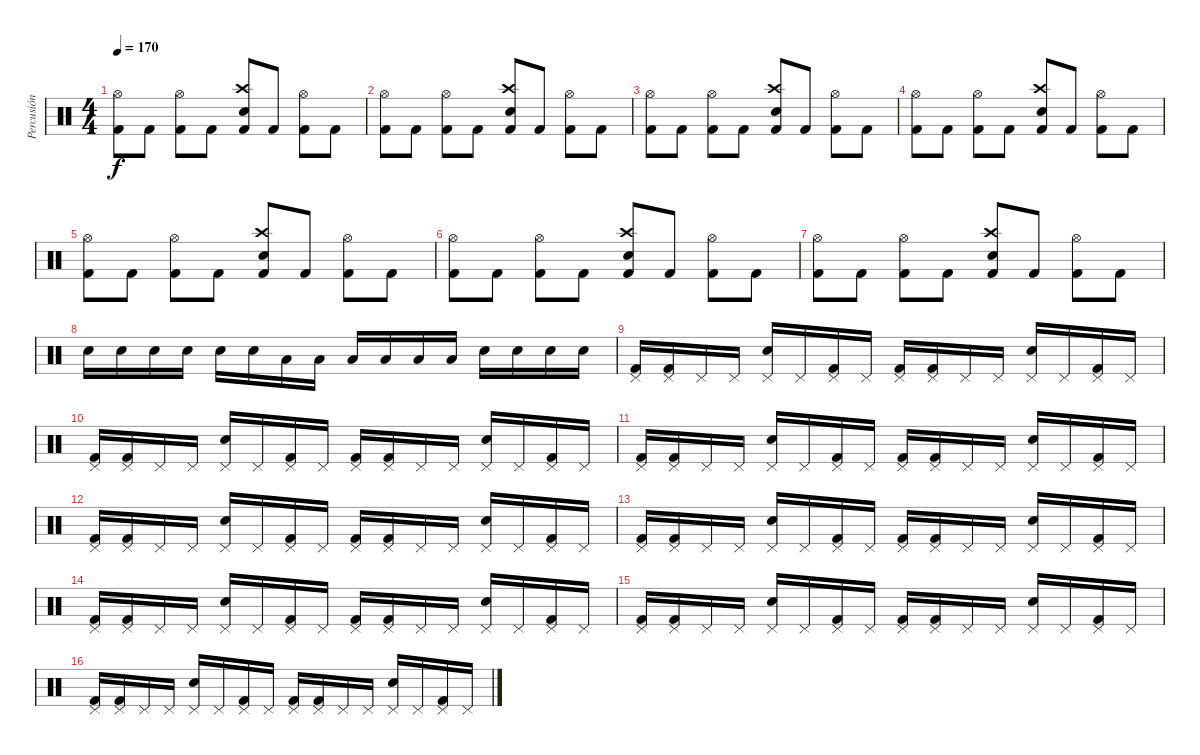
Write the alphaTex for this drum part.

\track ("Percusión" "Percusión") {instrument percussion}
\staff {score}
\articulation defaults
\ts (4 4)
\tempo 170
\clef neutral
\ks c
("Hi-Hat (open)" "Kick (hit) 2").8{dy f} "Kick (hit) 2".8 ("Hi-Hat (open)" "Kick (hit) 2").8 "Kick (hit) 2".8 ("Crash high (hit)" "Electric Snare (hit)" "Kick (hit) 2").8 "Kick (hit) 2".8 ("Hi-Hat (open)" "Kick (hit) 2").8 "Kick (hit) 2".8 |
("Hi-Hat (open)" "Kick (hit) 2").8 "Kick (hit) 2".8 ("Hi-Hat (open)" "Kick (hit) 2").8 "Kick (hit) 2".8 ("Crash high (hit)" "Electric Snare (hit)" "Kick (hit) 2").8 "Kick (hit) 2".8 ("Hi-Hat (open)" "Kick (hit) 2").8 "Kick (hit) 2".8 |
("Hi-Hat (open)" "Kick (hit) 2").8 "Kick (hit) 2".8 ("Hi-Hat (open)" "Kick (hit) 2").8 "Kick (hit) 2".8 ("Crash high (hit)" "Electric Snare (hit)" "Kick (hit) 2").8 "Kick (hit) 2".8 ("Hi-Hat (open)" "Kick (hit) 2").8 "Kick (hit) 2".8 |
("Hi-Hat (open)" "Kick (hit) 2").8 "Kick (hit) 2".8 ("Hi-Hat (open)" "Kick (hit) 2").8 "Kick (hit) 2".8 ("Crash high (hit)" "Electric Snare (hit)" "Kick (hit) 2").8 "Kick (hit) 2".8 ("Hi-Hat (open)" "Kick (hit) 2").8 "Kick (hit) 2".8 |
("Hi-Hat (open)" "Kick (hit) 2").8 "Kick (hit) 2".8 ("Hi-Hat (open)" "Kick (hit) 2").8 "Kick (hit) 2".8 ("Crash high (hit)" "Electric Snare (hit)" "Kick (hit) 2").8 "Kick (hit) 2".8 ("Hi-Hat (open)" "Kick (hit) 2").8 "Kick (hit) 2".8 |
("Hi-Hat (open)" "Kick (hit) 2").8 "Kick (hit) 2".8 ("Hi-Hat (open)" "Kick (hit) 2").8 "Kick (hit) 2".8 ("Crash high (hit)" "Electric Snare (hit)" "Kick (hit) 2").8 "Kick (hit) 2".8 ("Hi-Hat (open)" "Kick (hit) 2").8 "Kick (hit) 2".8 |
("Hi-Hat (open)" "Kick (hit) 2").8 "Kick (hit) 2".8 ("Hi-Hat (open)" "Kick (hit) 2").8 "Kick (hit) 2".8 ("Crash high (hit)" "Electric Snare (hit)" "Kick (hit) 2").8 "Kick (hit) 2".8 ("Hi-Hat (open)" "Kick (hit) 2").8 "Kick (hit) 2".8 |
"Electric Snare (hit)".16 "Electric Snare (hit)".16 "Electric Snare (hit)".16 "Electric Snare (hit)".16 "Electric Snare (hit)".16 "Electric Snare (hit)".16 "Low Tom (hit)".16 "Low Tom (hit)".16 "Low Tom (hit)".16 "Low Tom (hit)".16 "Low Tom (hit)".16 "Low Tom (hit)".16 "Electric Snare (hit)".16 "Electric Snare (hit)".16 "Electric Snare (hit)".16 "Electric Snare (hit)".16 |
("Pedal Hi-Hat (hit)" "Kick (hit) 2").16 ("Pedal Hi-Hat (hit)" "Kick (hit) 2").16 "Pedal Hi-Hat (hit)".16 "Pedal Hi-Hat (hit)".16 ("Pedal Hi-Hat (hit)" "Electric Snare (hit)").16 "Pedal Hi-Hat (hit)".16 ("Pedal Hi-Hat (hit)" "Kick (hit) 2").16 "Pedal Hi-Hat (hit)".16 ("Pedal Hi-Hat (hit)" "Kick (hit) 2").16 ("Pedal Hi-Hat (hit)" "Kick (hit) 2").16 "Pedal Hi-Hat (hit)".16 "Pedal Hi-Hat (hit)".16 ("Pedal Hi-Hat (hit)" "Electric Snare (hit)").16 "Pedal Hi-Hat (hit)".16 ("Pedal Hi-Hat (hit)" "Kick (hit) 2").16 "Pedal Hi-Hat (hit)".16 |
("Pedal Hi-Hat (hit)" "Kick (hit) 2").16 ("Pedal Hi-Hat (hit)" "Kick (hit) 2").16 "Pedal Hi-Hat (hit)".16 "Pedal Hi-Hat (hit)".16 ("Pedal Hi-Hat (hit)" "Electric Snare (hit)").16 "Pedal Hi-Hat (hit)".16 ("Pedal Hi-Hat (hit)" "Kick (hit) 2").16 "Pedal Hi-Hat (hit)".16 ("Pedal Hi-Hat (hit)" "Kick (hit) 2").16 ("Pedal Hi-Hat (hit)" "Kick (hit) 2").16 "Pedal Hi-Hat (hit)".16 "Pedal Hi-Hat (hit)".16 ("Pedal Hi-Hat (hit)" "Electric Snare (hit)").16 "Pedal Hi-Hat (hit)".16 ("Pedal Hi-Hat (hit)" "Kick (hit) 2").16 "Pedal Hi-Hat (hit)".16 |
("Pedal Hi-Hat (hit)" "Kick (hit) 2").16 ("Pedal Hi-Hat (hit)" "Kick (hit) 2").16 "Pedal Hi-Hat (hit)".16 "Pedal Hi-Hat (hit)".16 ("Pedal Hi-Hat (hit)" "Electric Snare (hit)").16 "Pedal Hi-Hat (hit)".16 ("Pedal Hi-Hat (hit)" "Kick (hit) 2").16 "Pedal Hi-Hat (hit)".16 ("Pedal Hi-Hat (hit)" "Kick (hit) 2").16 ("Pedal Hi-Hat (hit)" "Kick (hit) 2").16 "Pedal Hi-Hat (hit)".16 "Pedal Hi-Hat (hit)".16 ("Pedal Hi-Hat (hit)" "Electric Snare (hit)").16 "Pedal Hi-Hat (hit)".16 ("Pedal Hi-Hat (hit)" "Kick (hit) 2").16 "Pedal Hi-Hat (hit)".16 |
("Pedal Hi-Hat (hit)" "Kick (hit) 2").16 ("Pedal Hi-Hat (hit)" "Kick (hit) 2").16 "Pedal Hi-Hat (hit)".16 "Pedal Hi-Hat (hit)".16 ("Pedal Hi-Hat (hit)" "Electric Snare (hit)").16 "Pedal Hi-Hat (hit)".16 ("Pedal Hi-Hat (hit)" "Kick (hit) 2").16 "Pedal Hi-Hat (hit)".16 ("Pedal Hi-Hat (hit)" "Kick (hit) 2").16 ("Pedal Hi-Hat (hit)" "Kick (hit) 2").16 "Pedal Hi-Hat (hit)".16 "Pedal Hi-Hat (hit)".16 ("Pedal Hi-Hat (hit)" "Electric Snare (hit)").16 "Pedal Hi-Hat (hit)".16 ("Pedal Hi-Hat (hit)" "Kick (hit) 2").16 "Pedal Hi-Hat (hit)".16 |
("Pedal Hi-Hat (hit)" "Kick (hit) 2").16 ("Pedal Hi-Hat (hit)" "Kick (hit) 2").16 "Pedal Hi-Hat (hit)".16 "Pedal Hi-Hat (hit)".16 ("Pedal Hi-Hat (hit)" "Electric Snare (hit)").16 "Pedal Hi-Hat (hit)".16 ("Pedal Hi-Hat (hit)" "Kick (hit) 2").16 "Pedal Hi-Hat (hit)".16 ("Pedal Hi-Hat (hit)" "Kick (hit) 2").16 ("Pedal Hi-Hat (hit)" "Kick (hit) 2").16 "Pedal Hi-Hat (hit)".16 "Pedal Hi-Hat (hit)".16 ("Pedal Hi-Hat (hit)" "Electric Snare (hit)").16 "Pedal Hi-Hat (hit)".16 ("Pedal Hi-Hat (hit)" "Kick (hit) 2").16 "Pedal Hi-Hat (hit)".16 |
("Pedal Hi-Hat (hit)" "Kick (hit) 2").16 ("Pedal Hi-Hat (hit)" "Kick (hit) 2").16 "Pedal Hi-Hat (hit)".16 "Pedal Hi-Hat (hit)".16 ("Pedal Hi-Hat (hit)" "Electric Snare (hit)").16 "Pedal Hi-Hat (hit)".16 ("Pedal Hi-Hat (hit)" "Kick (hit) 2").16 "Pedal Hi-Hat (hit)".16 ("Pedal Hi-Hat (hit)" "Kick (hit) 2").16 ("Pedal Hi-Hat (hit)" "Kick (hit) 2").16 "Pedal Hi-Hat (hit)".16 "Pedal Hi-Hat (hit)".16 ("Pedal Hi-Hat (hit)" "Electric Snare (hit)").16 "Pedal Hi-Hat (hit)".16 ("Pedal Hi-Hat (hit)" "Kick (hit) 2").16 "Pedal Hi-Hat (hit)".16 |
("Pedal Hi-Hat (hit)" "Kick (hit) 2").16 ("Pedal Hi-Hat (hit)" "Kick (hit) 2").16 "Pedal Hi-Hat (hit)".16 "Pedal Hi-Hat (hit)".16 ("Pedal Hi-Hat (hit)" "Electric Snare (hit)").16 "Pedal Hi-Hat (hit)".16 ("Pedal Hi-Hat (hit)" "Kick (hit) 2").16 "Pedal Hi-Hat (hit)".16 ("Pedal Hi-Hat (hit)" "Kick (hit) 2").16 ("Pedal Hi-Hat (hit)" "Kick (hit) 2").16 "Pedal Hi-Hat (hit)".16 "Pedal Hi-Hat (hit)".16 ("Pedal Hi-Hat (hit)" "Electric Snare (hit)").16 "Pedal Hi-Hat (hit)".16 ("Pedal Hi-Hat (hit)" "Kick (hit) 2").16 "Pedal Hi-Hat (hit)".16 |
("Pedal Hi-Hat (hit)" "Kick (hit) 2").16 ("Pedal Hi-Hat (hit)" "Kick (hit) 2").16 "Pedal Hi-Hat (hit)".16 "Pedal Hi-Hat (hit)".16 ("Pedal Hi-Hat (hit)" "Electric Snare (hit)").16 "Pedal Hi-Hat (hit)".16 ("Pedal Hi-Hat (hit)" "Kick (hit) 2").16 "Pedal Hi-Hat (hit)".16 ("Pedal Hi-Hat (hit)" "Kick (hit) 2").16 ("Pedal Hi-Hat (hit)" "Kick (hit) 2").16 "Pedal Hi-Hat (hit)".16 "Pedal Hi-Hat (hit)".16 ("Pedal Hi-Hat (hit)" "Electric Snare (hit)").16 "Pedal Hi-Hat (hit)".16 ("Pedal Hi-Hat (hit)" "Kick (hit) 2").16 "Pedal Hi-Hat (hit)".16
